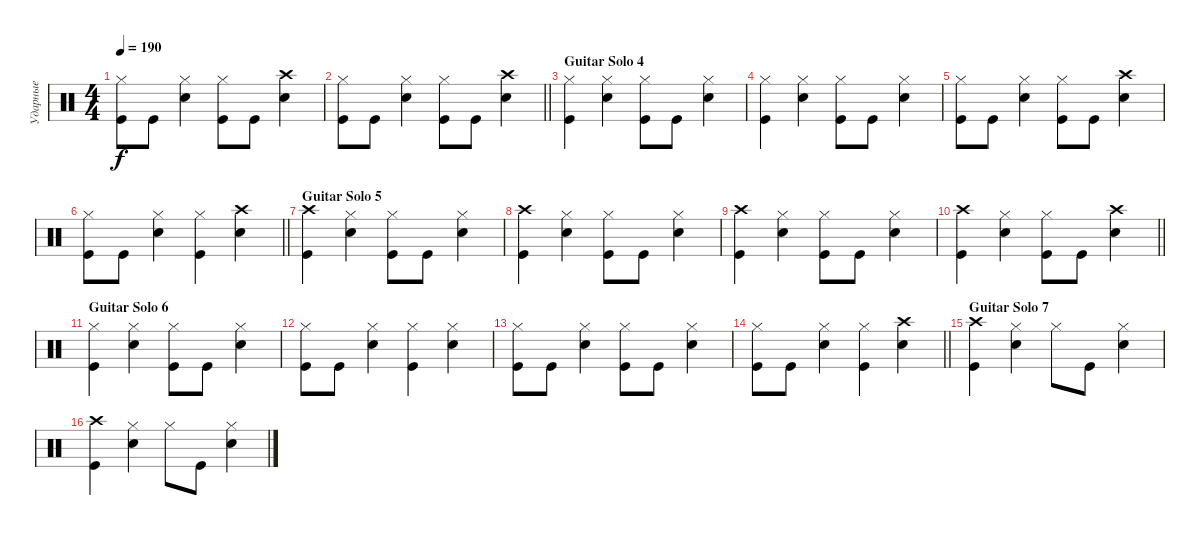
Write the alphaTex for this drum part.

\track ("Ударные" "Ударные") {instrument percussion}
\staff {score}
\articulation defaults
\ts (4 4)
\tempo 190
\clef neutral
\ks aminor
("Kick (hit)" "Hi-Hat (closed)").8{dy f} "Kick (hit)".8 ("Snare (hit) 2" "Hi-Hat (closed)").4 ("Kick (hit)" "Hi-Hat (closed)").8 "Kick (hit)".8 ("Snare (hit) 2" "Crash high (hit)").4 |
\barLineRight lightlight
("Kick (hit)" "Hi-Hat (closed)").8 "Kick (hit)".8 ("Snare (hit) 2" "Hi-Hat (closed)").4 ("Kick (hit)" "Hi-Hat (closed)").8 "Kick (hit)".8 ("Snare (hit) 2" "Crash high (hit)").4 |
\section ("" "Guitar Solo 4")
("Kick (hit)" "Hi-Hat (closed)").4 ("Snare (hit) 2" "Hi-Hat (closed)").4 ("Kick (hit)" "Hi-Hat (closed)").8 "Kick (hit)".8 ("Snare (hit) 2" "Hi-Hat (closed)").4 |
("Kick (hit)" "Hi-Hat (closed)").4 ("Snare (hit) 2" "Hi-Hat (closed)").4 ("Kick (hit)" "Hi-Hat (closed)").8 "Kick (hit)".8 ("Snare (hit) 2" "Hi-Hat (closed)").4 |
("Kick (hit)" "Hi-Hat (closed)").8 "Kick (hit)".8 ("Snare (hit) 2" "Hi-Hat (closed)").4 ("Kick (hit)" "Hi-Hat (closed)").8 "Kick (hit)".8 ("Snare (hit) 2" "Crash high (hit)").4 |
\barLineRight lightlight
("Kick (hit)" "Hi-Hat (closed)").8 "Kick (hit)".8 ("Snare (hit) 2" "Hi-Hat (closed)").4 ("Kick (hit)" "Hi-Hat (closed)").4 ("Snare (hit) 2" "Crash high (hit)").4 |
\section ("" "Guitar Solo 5")
("Kick (hit)" "Crash high (hit)").4 ("Snare (hit) 2" "Hi-Hat (closed)").4 ("Kick (hit)" "Hi-Hat (closed)").8 "Kick (hit)".8 ("Snare (hit) 2" "Hi-Hat (closed)").4 |
("Kick (hit)" "Crash high (hit)").4 ("Snare (hit) 2" "Hi-Hat (closed)").4 ("Kick (hit)" "Hi-Hat (closed)").8 "Kick (hit)".8 ("Snare (hit) 2" "Hi-Hat (closed)").4 |
("Kick (hit)" "Crash high (hit)").4 ("Snare (hit) 2" "Hi-Hat (closed)").4 ("Kick (hit)" "Hi-Hat (closed)").8 "Kick (hit)".8 ("Snare (hit) 2" "Hi-Hat (closed)").4 |
\barLineRight lightlight
("Kick (hit)" "Crash high (hit)").4 ("Snare (hit) 2" "Hi-Hat (closed)").4 ("Kick (hit)" "Hi-Hat (closed)").8 "Kick (hit)".8 ("Snare (hit) 2" "Crash high (hit)").4 |
\section ("" "Guitar Solo 6")
("Kick (hit)" "Hi-Hat (closed)").4 ("Snare (hit) 2" "Hi-Hat (closed)").4 ("Kick (hit)" "Hi-Hat (closed)").8 "Kick (hit)".8 ("Snare (hit) 2" "Hi-Hat (closed)").4 |
("Kick (hit)" "Hi-Hat (closed)").8 "Kick (hit)".8 ("Snare (hit) 2" "Hi-Hat (closed)").4 ("Kick (hit)" "Hi-Hat (closed)").4 ("Snare (hit) 2" "Hi-Hat (closed)").4 |
("Kick (hit)" "Hi-Hat (closed)").8 "Kick (hit)".8 ("Snare (hit) 2" "Hi-Hat (closed)").4 ("Kick (hit)" "Hi-Hat (closed)").8 "Kick (hit)".8 ("Snare (hit) 2" "Hi-Hat (closed)").4 |
\barLineRight lightlight
("Kick (hit)" "Hi-Hat (closed)").8 "Kick (hit)".8 ("Snare (hit) 2" "Hi-Hat (closed)").4 ("Kick (hit)" "Hi-Hat (closed)").4 ("Snare (hit) 2" "Crash high (hit)").4 |
\section ("" "Guitar Solo 7")
("Kick (hit)" "Crash high (hit)").4 ("Snare (hit) 2" "Hi-Hat (closed)").4 "Hi-Hat (closed)".8 "Kick (hit)".8 ("Snare (hit) 2" "Hi-Hat (closed)").4 |
("Kick (hit)" "Crash high (hit)").4 ("Snare (hit) 2" "Hi-Hat (closed)").4 "Hi-Hat (closed)".8 "Kick (hit)".8 ("Snare (hit) 2" "Hi-Hat (closed)").4
